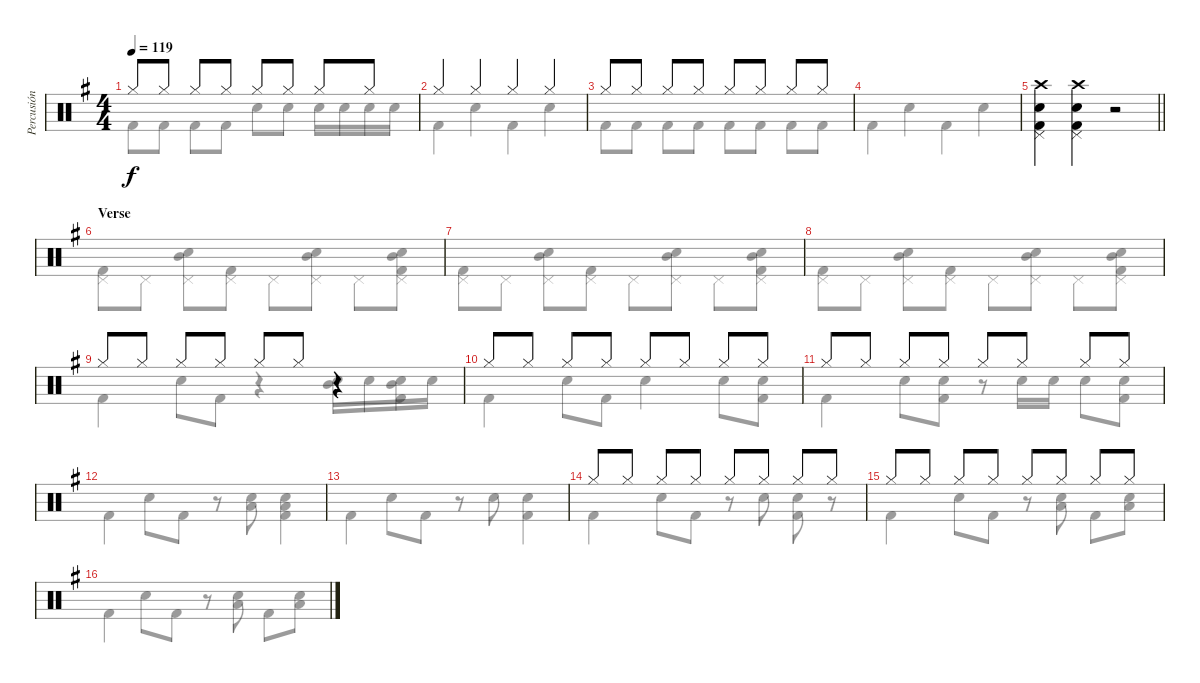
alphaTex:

\track ("Percusión" "Percusión") {instrument percussion}
\staff {score}
\articulation defaults
\voice
\ts (4 4)
\tempo 119
\clef neutral
\ks g "Hi-Hat (closed)".8{dy f} "Hi-Hat (closed)".8 "Hi-Hat (closed)".8 "Hi-Hat (closed)".8 "Hi-Hat (closed)".8 "Hi-Hat (closed)".8 "Hi-Hat (closed)".8 "Hi-Hat (closed)".8
|
"Hi-Hat (closed)".4 "Hi-Hat (closed)".4 "Hi-Hat (closed)".4 "Hi-Hat (closed)".4 |
"Hi-Hat (closed)".8 "Hi-Hat (closed)".8 "Hi-Hat (closed)".8 "Hi-Hat (closed)".8 "Hi-Hat (closed)".8 "Hi-Hat (closed)".8 "Hi-Hat (closed)".8 "Hi-Hat (closed)".8 |
|
\barLineRight lightlight
("Crash high (hit)" "Electric Snare (hit)" "Kick (hit) 2" "Pedal Hi-Hat (hit)").4 ("Crash high (hit)" "Electric Snare (hit)" "Kick (hit) 2" "Pedal Hi-Hat (hit)").4 r.2 |
\section ("" "Verse")
|
|
|
"Hi-Hat (closed)".8 "Hi-Hat (closed)".8 "Hi-Hat (closed)".8 "Hi-Hat (closed)".8 "Hi-Hat (closed)".8 "Hi-Hat (closed)".8 r.4 |
"Hi-Hat (closed)".8 "Hi-Hat (closed)".8 "Hi-Hat (closed)".8 "Hi-Hat (closed)".8 "Hi-Hat (closed)".8 "Hi-Hat (closed)".8 "Hi-Hat (closed)".8 "Hi-Hat (closed)".8 |
"Hi-Hat (closed)".8 "Hi-Hat (closed)".8 "Hi-Hat (closed)".8 "Hi-Hat (closed)".8 "Hi-Hat (closed)".8 "Hi-Hat (closed)".8 "Hi-Hat (closed)".8 "Hi-Hat (closed)".8 |
|
|
"Hi-Hat (closed)".8 "Hi-Hat (closed)".8 "Hi-Hat (closed)".8 "Hi-Hat (closed)".8 "Hi-Hat (closed)".8 "Hi-Hat (closed)".8 "Hi-Hat (closed)".8 "Hi-Hat (closed)".8 |
"Hi-Hat (closed)".8 "Hi-Hat (closed)".8 "Hi-Hat (closed)".8 "Hi-Hat (closed)".8 "Hi-Hat (closed)".8 "Hi-Hat (closed)".8 "Hi-Hat (closed)".8 "Hi-Hat (closed)".8 |
\voice
\clef neutral
\ottava regular
\simile none
\ks g "Kick (hit) 2".8{dy f} "Kick (hit) 2".8 "Kick (hit) 2".8 "Kick (hit) 2".8 "Electric Snare (hit)".8 "Electric Snare (hit)".8 "Electric Snare (hit)".16 "Electric Snare (hit)".16 "Electric Snare (hit)".16 "Electric Snare (hit)".16
|
"Kick (hit) 2".4 "Electric Snare (hit)".4 "Kick (hit) 2".4 "Electric Snare (hit)".4 |
"Kick (hit) 2".8 "Kick (hit) 2".8 "Kick (hit) 2".8 "Kick (hit) 2".8 "Kick (hit) 2".8 "Kick (hit) 2".8 "Kick (hit) 2".8 "Kick (hit) 2".8 |
"Kick (hit) 2".4 "Electric Snare (hit)".4 "Kick (hit) 2".4 "Electric Snare (hit)".4 |
\barLineRight lightlight
|
("Pedal Hi-Hat (hit)" "Kick (hit) 2").8 "Pedal Hi-Hat (hit)".8 ("Mid Tom (hit)" "Electric Snare (hit)" "Pedal Hi-Hat (hit)").8 ("Pedal Hi-Hat (hit)" "Kick (hit) 2").8 "Pedal Hi-Hat (hit)".8 ("Mid Tom (hit)" "Electric Snare (hit)" "Pedal Hi-Hat (hit)").8 "Pedal Hi-Hat (hit)".8 ("Mid Tom (hit)" "Electric Snare (hit)" "Pedal Hi-Hat (hit)" "Kick (hit) 2").8 |
("Pedal Hi-Hat (hit)" "Kick (hit) 2").8 "Pedal Hi-Hat (hit)".8 ("Mid Tom (hit)" "Electric Snare (hit)" "Pedal Hi-Hat (hit)").8 ("Pedal Hi-Hat (hit)" "Kick (hit) 2").8 "Pedal Hi-Hat (hit)".8 ("Mid Tom (hit)" "Electric Snare (hit)" "Pedal Hi-Hat (hit)").8 "Pedal Hi-Hat (hit)".8 ("Mid Tom (hit)" "Electric Snare (hit)" "Pedal Hi-Hat (hit)" "Kick (hit) 2").8 |
("Pedal Hi-Hat (hit)" "Kick (hit) 2").8 "Pedal Hi-Hat (hit)".8 ("Mid Tom (hit)" "Electric Snare (hit)" "Pedal Hi-Hat (hit)").8 ("Pedal Hi-Hat (hit)" "Kick (hit) 2").8 "Pedal Hi-Hat (hit)".8 ("Mid Tom (hit)" "Electric Snare (hit)" "Pedal Hi-Hat (hit)").8 "Pedal Hi-Hat (hit)".8 ("Mid Tom (hit)" "Electric Snare (hit)" "Pedal Hi-Hat (hit)" "Kick (hit) 2").8 |
"Kick (hit) 2".4 "Electric Snare (hit)".8 "Kick (hit) 2".8 r.4 ("Mid Tom (hit)" "Electric Snare (hit)").16 "Electric Snare (hit)".16 ("Mid Tom (hit)" "Electric Snare (hit)" "Kick (hit) 2").16 "Electric Snare (hit)".16 |
"Kick (hit) 2".4 "Electric Snare (hit)".8 "Kick (hit) 2".8 "Electric Snare (hit)".4 "Electric Snare (hit)".8 ("Electric Snare (hit)" "Kick (hit) 2").8 |
"Kick (hit) 2".4 "Electric Snare (hit)".8 ("Electric Snare (hit)" "Kick (hit) 2").8 r.8 "Electric Snare (hit)".16 "Electric Snare (hit)".16 "Electric Snare (hit)".8 ("Electric Snare (hit)" "Kick (hit) 2").8 |
"Kick (hit) 2".4 "Electric Snare (hit)".8 "Kick (hit) 2".8 r.8 ("Electric Snare (hit)" "Low Tom (hit)").8 ("Electric Snare (hit)" "Low Tom (hit)" "Kick (hit) 2").4 |
"Kick (hit) 2".4 "Electric Snare (hit)".8 "Kick (hit) 2".8 r.8 "Electric Snare (hit)".8 ("Electric Snare (hit)" "Kick (hit) 2").4 |
"Kick (hit) 2".4 "Electric Snare (hit)".8 "Kick (hit) 2".8 r.8 "Electric Snare (hit)".8 ("Electric Snare (hit)" "Kick (hit) 2").8 r.8 |
"Kick (hit) 2".4 "Electric Snare (hit)".8 "Kick (hit) 2".8 r.8 ("Low Tom (hit)" "Electric Snare (hit)").8 "Kick (hit) 2".8 ("Low Tom (hit)" "Electric Snare (hit)").8 |
"Kick (hit) 2".4 "Electric Snare (hit)".8 "Kick (hit) 2".8 r.8 ("Electric Snare (hit)" "Low Tom (hit)").8 "Kick (hit) 2".8 ("Low Tom (hit)" "Electric Snare (hit)").8
